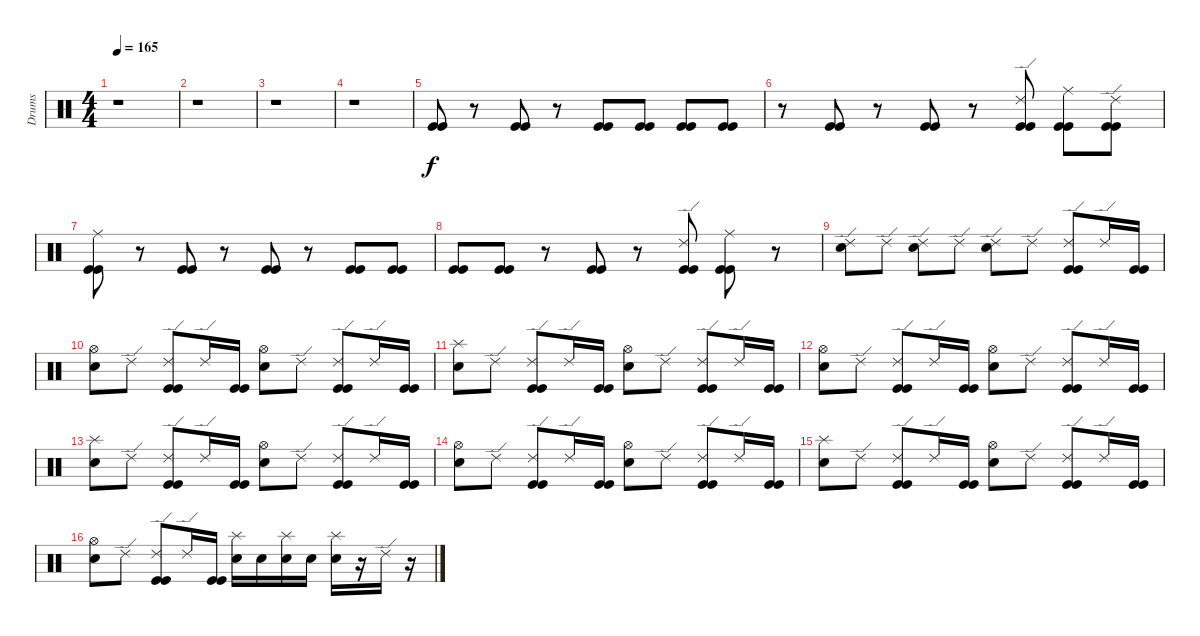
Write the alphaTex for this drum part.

\track ("Drums" "Drums") {instrument percussion}
\staff {score}
\articulation defaults
\ts (4 4)
\tempo 165
\clef neutral
\ks c
r.1{dy f} |
r.1 |
r.1 |
r.1 |
("Kick (hit)" "Kick (hit)").8 r.8 ("Kick (hit)" "Kick (hit)").8 r.8 ("Kick (hit)" "Kick (hit)").8 ("Kick (hit)" "Kick (hit)").8 ("Kick (hit)" "Kick (hit)").8 ("Kick (hit)" "Kick (hit)").8 |
r.8 ("Kick (hit)" "Kick (hit)").8 r.8 ("Kick (hit)" "Kick (hit)").8 r.8 ("Ride (edge) 2" "Kick (hit)" "Kick (hit)").8 ("Ride (middle)" "Kick (hit)" "Kick (hit)").8 ("Ride (edge) 2" "Kick (hit)" "Kick (hit)").8 |
("Ride (middle)" "Kick (hit)" "Kick (hit)").8 r.8 ("Kick (hit)" "Kick (hit)").8 r.8 ("Kick (hit)" "Kick (hit)").8 r.8 ("Kick (hit)" "Kick (hit)").8 ("Kick (hit)" "Kick (hit)").8 |
("Kick (hit)" "Kick (hit)").8 ("Kick (hit)" "Kick (hit)").8 r.8 ("Kick (hit)" "Kick (hit)").8 r.8 ("Ride (edge) 2" "Kick (hit)" "Kick (hit)").8 ("Ride (middle)" "Kick (hit)" "Kick (hit)").8 r.8 |
("Ride (edge) 2" "Snare (hit) 2").8 "Ride (edge) 2".8 ("Ride (edge) 2" "Snare (hit) 2").8 "Ride (edge) 2".8 ("Ride (edge) 2" "Snare (hit) 2").8 "Ride (edge) 2".8 ("Ride (edge) 2" "Kick (hit)" "Kick (hit)").8 "Ride (edge) 2".16 ("Kick (hit)" "Kick (hit)").16 |
("Hi-Hat (open)" "Snare (hit) 2").8 "Ride (edge) 2".8 ("Ride (edge) 2" "Kick (hit)" "Kick (hit)").8 "Ride (edge) 2".16 ("Kick (hit)" "Kick (hit)").16 ("Hi-Hat (open)" "Snare (hit) 2").8 "Ride (edge) 2".8 ("Ride (edge) 2" "Kick (hit)" "Kick (hit)").8 "Ride (edge) 2".16 ("Kick (hit)" "Kick (hit)").16 |
("Splash (hit)" "Snare (hit) 2").8 "Ride (edge) 2".8 ("Ride (edge) 2" "Kick (hit)" "Kick (hit)").8 "Ride (edge) 2".16 ("Kick (hit)" "Kick (hit)").16 ("Hi-Hat (open)" "Snare (hit) 2").8 "Ride (edge) 2".8 ("Ride (edge) 2" "Kick (hit)" "Kick (hit)").8 "Ride (edge) 2".16 ("Kick (hit)" "Kick (hit)").16 |
("Hi-Hat (open)" "Snare (hit) 2").8 "Ride (edge) 2".8 ("Ride (edge) 2" "Kick (hit)" "Kick (hit)").8 "Ride (edge) 2".16 ("Kick (hit)" "Kick (hit)").16 ("Hi-Hat (open)" "Snare (hit) 2").8 "Ride (edge) 2".8 ("Ride (edge) 2" "Kick (hit)" "Kick (hit)").8 "Ride (edge) 2".16 ("Kick (hit)" "Kick (hit)").16 |
("Splash (hit)" "Snare (hit) 2").8 "Ride (edge) 2".8 ("Ride (edge) 2" "Kick (hit)" "Kick (hit)").8 "Ride (edge) 2".16 ("Kick (hit)" "Kick (hit)").16 ("Hi-Hat (open)" "Snare (hit) 2").8 "Ride (edge) 2".8 ("Ride (edge) 2" "Kick (hit)" "Kick (hit)").8 "Ride (edge) 2".16 ("Kick (hit)" "Kick (hit)").16 |
("Hi-Hat (open)" "Snare (hit) 2").8 "Ride (edge) 2".8 ("Ride (edge) 2" "Kick (hit)" "Kick (hit)").8 "Ride (edge) 2".16 ("Kick (hit)" "Kick (hit)").16 ("Hi-Hat (open)" "Snare (hit) 2").8 "Ride (edge) 2".8 ("Ride (edge) 2" "Kick (hit)" "Kick (hit)").8 "Ride (edge) 2".16 ("Kick (hit)" "Kick (hit)").16 |
("Splash (hit)" "Snare (hit) 2").8 "Ride (edge) 2".8 ("Ride (edge) 2" "Kick (hit)" "Kick (hit)").8 "Ride (edge) 2".16 ("Kick (hit)" "Kick (hit)").16 ("Hi-Hat (open)" "Snare (hit) 2").8 "Ride (edge) 2".8 ("Ride (edge) 2" "Kick (hit)" "Kick (hit)").8 "Ride (edge) 2".16 ("Kick (hit)" "Kick (hit)").16 |
("Hi-Hat (open)" "Snare (hit) 2").8 "Ride (edge) 2".8 ("Ride (edge) 2" "Kick (hit)" "Kick (hit)").8 "Ride (edge) 2".16 ("Kick (hit)" "Kick (hit)").16 ("Splash (hit)" "Snare (hit) 2").16 "Snare (hit) 2".16 ("Splash (hit)" "Snare (hit) 2").16 "Snare (hit) 2".16 ("Splash (hit)" "Snare (hit) 2").16 r.16 "Ride (edge) 2".16 r.16
